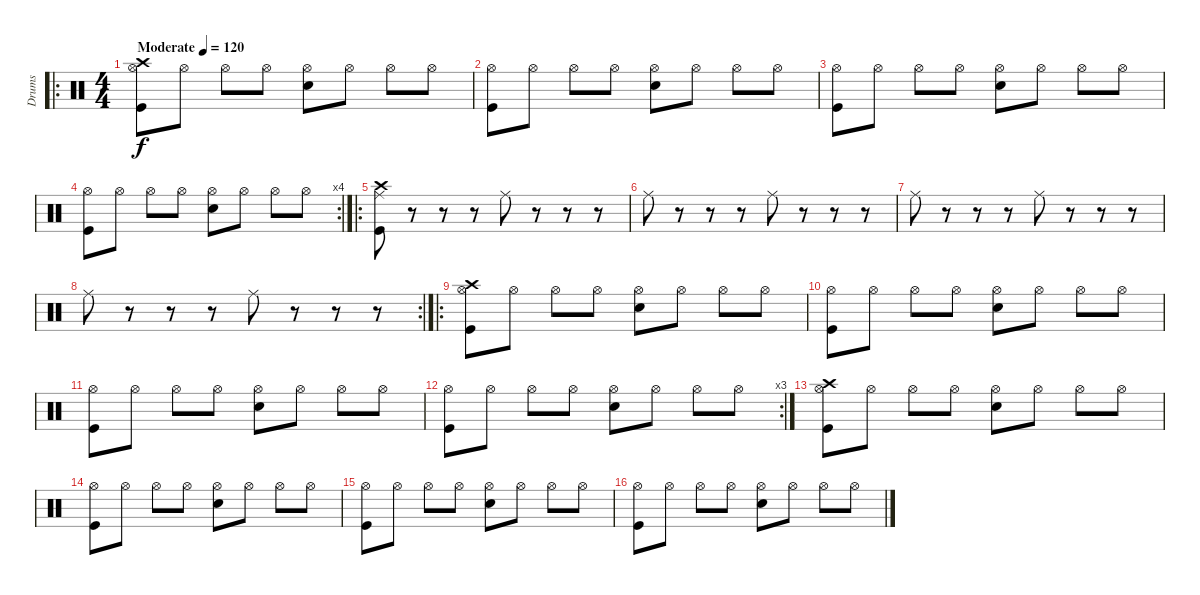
\track ("Drums" "Drums") {instrument percussion}
\staff {score}
\articulation defaults
\ro
\ts (4 4)
\tempo (120 "Moderate")
\clef neutral
\ks c
("Hi-Hat (open)" "Crash high (hit)" "Kick (hit)").8{dy f} "Hi-Hat (open)".8 "Hi-Hat (open)".8 "Hi-Hat (open)".8 ("Hi-Hat (open)" "Electric Snare (hit)").8 "Hi-Hat (open)".8 "Hi-Hat (open)".8 "Hi-Hat (open)".8 |
("Hi-Hat (open)" "Kick (hit)").8 "Hi-Hat (open)".8 "Hi-Hat (open)".8 "Hi-Hat (open)".8 ("Hi-Hat (open)" "Electric Snare (hit)").8 "Hi-Hat (open)".8 "Hi-Hat (open)".8 "Hi-Hat (open)".8 |
("Hi-Hat (open)" "Kick (hit)").8 "Hi-Hat (open)".8 "Hi-Hat (open)".8 "Hi-Hat (open)".8 ("Hi-Hat (open)" "Electric Snare (hit)").8 "Hi-Hat (open)".8 "Hi-Hat (open)".8 "Hi-Hat (open)".8 |
\rc 4
("Hi-Hat (open)" "Kick (hit)").8 "Hi-Hat (open)".8 "Hi-Hat (open)".8 "Hi-Hat (open)".8 ("Hi-Hat (open)" "Electric Snare (hit)").8 "Hi-Hat (open)".8 "Hi-Hat (open)".8 "Hi-Hat (open)".8 |
\ro
("Crash high (hit)" "Ride (middle)" "Kick (hit)").8 r.8 r.8 r.8 "Ride (middle)".8 r.8 r.8 r.8 |
"Ride (middle)".8 r.8 r.8 r.8 "Ride (middle)".8 r.8 r.8 r.8 |
"Ride (middle)".8 r.8 r.8 r.8 "Ride (middle)".8 r.8 r.8 r.8 |
\rc 2 "Ride (middle)".8
r.8 r.8 r.8 "Ride (middle)".8 r.8 r.8 r.8 |
\ro
("Hi-Hat (open)" "Crash high (hit)" "Kick (hit)").8 "Hi-Hat (open)".8 "Hi-Hat (open)".8 "Hi-Hat (open)".8 ("Hi-Hat (open)" "Electric Snare (hit)").8 "Hi-Hat (open)".8 "Hi-Hat (open)".8 "Hi-Hat (open)".8 |
("Hi-Hat (open)" "Kick (hit)").8 "Hi-Hat (open)".8 "Hi-Hat (open)".8 "Hi-Hat (open)".8 ("Hi-Hat (open)" "Electric Snare (hit)").8 "Hi-Hat (open)".8 "Hi-Hat (open)".8 "Hi-Hat (open)".8 |
("Hi-Hat (open)" "Kick (hit)").8 "Hi-Hat (open)".8 "Hi-Hat (open)".8 "Hi-Hat (open)".8 ("Hi-Hat (open)" "Electric Snare (hit)").8 "Hi-Hat (open)".8 "Hi-Hat (open)".8 "Hi-Hat (open)".8 |
\rc 3
("Hi-Hat (open)" "Kick (hit)").8 "Hi-Hat (open)".8 "Hi-Hat (open)".8 "Hi-Hat (open)".8 ("Hi-Hat (open)" "Electric Snare (hit)").8 "Hi-Hat (open)".8 "Hi-Hat (open)".8 "Hi-Hat (open)".8 |
("Hi-Hat (open)" "Crash high (hit)" "Kick (hit)").8 "Hi-Hat (open)".8 "Hi-Hat (open)".8 "Hi-Hat (open)".8 ("Hi-Hat (open)" "Electric Snare (hit)").8 "Hi-Hat (open)".8 "Hi-Hat (open)".8 "Hi-Hat (open)".8 |
("Hi-Hat (open)" "Kick (hit)").8 "Hi-Hat (open)".8 "Hi-Hat (open)".8 "Hi-Hat (open)".8 ("Hi-Hat (open)" "Electric Snare (hit)").8 "Hi-Hat (open)".8 "Hi-Hat (open)".8 "Hi-Hat (open)".8 |
("Hi-Hat (open)" "Kick (hit)").8 "Hi-Hat (open)".8 "Hi-Hat (open)".8 "Hi-Hat (open)".8 ("Hi-Hat (open)" "Electric Snare (hit)").8 "Hi-Hat (open)".8 "Hi-Hat (open)".8 "Hi-Hat (open)".8 |
("Hi-Hat (open)" "Kick (hit)").8 "Hi-Hat (open)".8 "Hi-Hat (open)".8 "Hi-Hat (open)".8 ("Hi-Hat (open)" "Electric Snare (hit)").8 "Hi-Hat (open)".8 "Hi-Hat (open)".8 "Hi-Hat (open)".8
